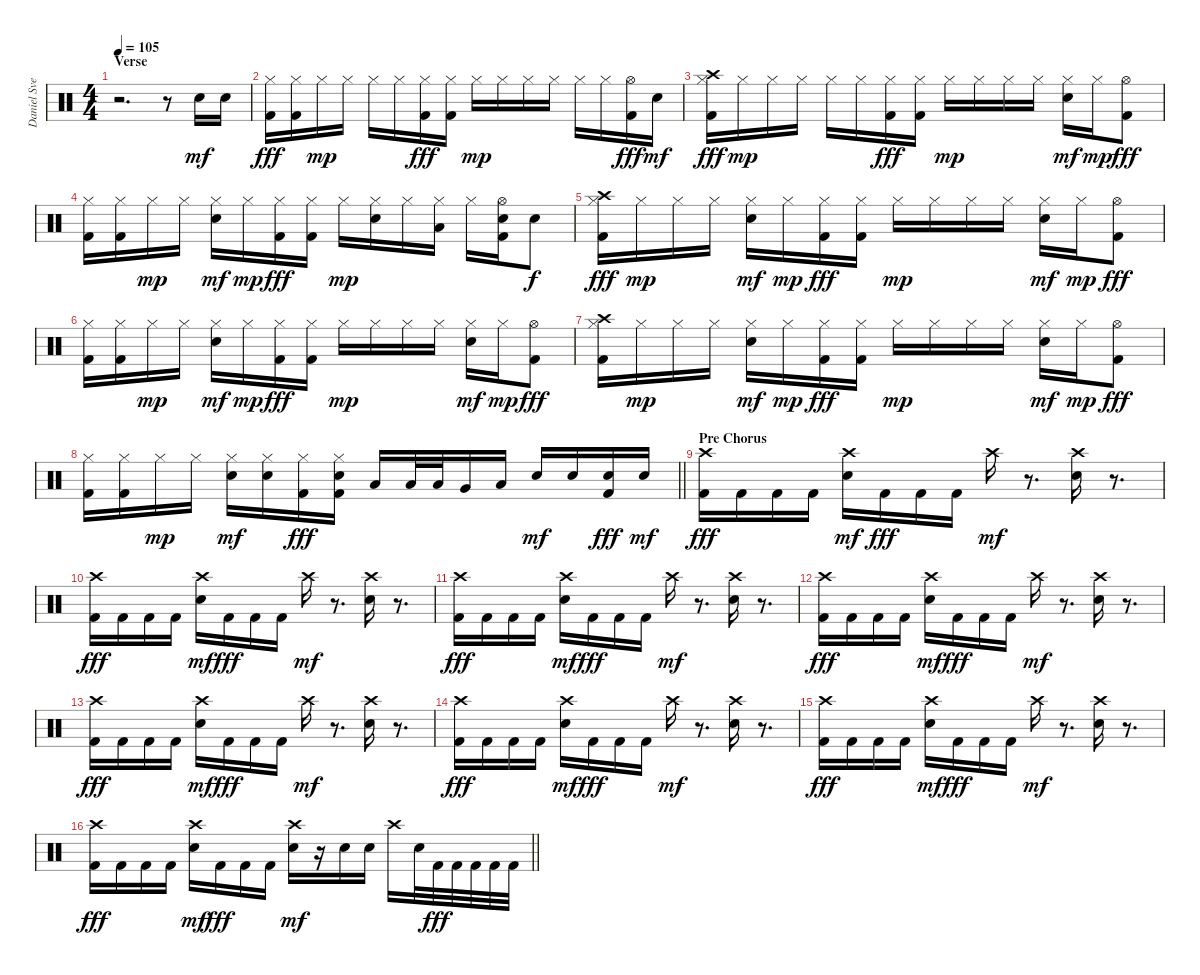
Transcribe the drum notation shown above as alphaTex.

\track ("Daniel Svensson" "Daniel Sve") {instrument percussion}
\staff {score}
\articulation defaults
\ts (4 4)
\section ("" "Verse")
\tempo 105
\clef neutral
\ks c
r.2{d dy mf} r.8 "Electric Snare (hit)".16 "Electric Snare (hit)".16 |
("Hi-Hat (closed)" "Kick (hit) 2").16{dy fff} ("Hi-Hat (closed)" "Kick (hit) 2").16 "Hi-Hat (closed)".16{dy mp} "Hi-Hat (closed)".16 "Hi-Hat (closed)".16 "Hi-Hat (closed)".16 ("Hi-Hat (closed)" "Kick (hit) 2").16{dy fff} ("Hi-Hat (closed)" "Kick (hit) 2").16 "Hi-Hat (closed)".16{dy mp} "Hi-Hat (closed)".16 "Hi-Hat (closed)".16 "Hi-Hat (closed)".16 "Hi-Hat (closed)".16 "Hi-Hat (closed)".16 ("Hi-Hat (open)" "Kick (hit) 2").16{dy fff} "Electric Snare (hit)".16{dy mf} |
("Crash high (hit)" "Hi-Hat (closed)" "Kick (hit) 2").16{dy fff} "Hi-Hat (closed)".16{dy mp} "Hi-Hat (closed)".16 "Hi-Hat (closed)".16 "Hi-Hat (closed)".16 "Hi-Hat (closed)".16 ("Hi-Hat (closed)" "Kick (hit) 2").16{dy fff} ("Hi-Hat (closed)" "Kick (hit) 2").16 "Hi-Hat (closed)".16{dy mp} "Hi-Hat (closed)".16 "Hi-Hat (closed)".16 "Hi-Hat (closed)".16 ("Hi-Hat (closed)" "Electric Snare (hit)").16{dy mf} "Hi-Hat (closed)".16{dy mp} ("Hi-Hat (open)" "Kick (hit) 2").8{dy fff} |
("Hi-Hat (closed)" "Kick (hit) 2").16 ("Hi-Hat (closed)" "Kick (hit) 2").16 "Hi-Hat (closed)".16{dy mp} "Hi-Hat (closed)".16 ("Hi-Hat (closed)" "Electric Snare (hit)").16{dy mf} "Hi-Hat (closed)".16{dy mp} ("Hi-Hat (closed)" "Kick (hit) 2").16{dy fff} ("Hi-Hat (closed)" "Kick (hit) 2").16 "Hi-Hat (closed)".16{dy mp} ("Hi-Hat (closed)" "Electric Snare (hit)").16 "Hi-Hat (closed)".16 ("Low Tom (hit)" "Hi-Hat (closed)").16 "Hi-Hat (closed)".16 ("Hi-Hat (open)" "Electric Snare (hit)" "Kick (hit) 2").16 "Electric Snare (hit)".8{dy f} |
("Crash high (hit)" "Hi-Hat (closed)" "Kick (hit) 2").16{dy fff} "Hi-Hat (closed)".16{dy mp} "Hi-Hat (closed)".16 "Hi-Hat (closed)".16 ("Hi-Hat (closed)" "Electric Snare (hit)").16{dy mf} "Hi-Hat (closed)".16{dy mp} ("Hi-Hat (closed)" "Kick (hit) 2").16{dy fff} ("Hi-Hat (closed)" "Kick (hit) 2").16 "Hi-Hat (closed)".16{dy mp} "Hi-Hat (closed)".16 "Hi-Hat (closed)".16 "Hi-Hat (closed)".16 ("Hi-Hat (closed)" "Electric Snare (hit)").16{dy mf} "Hi-Hat (closed)".16{dy mp} ("Hi-Hat (open)" "Kick (hit) 2").8{dy fff} |
("Hi-Hat (closed)" "Kick (hit) 2").16 ("Hi-Hat (closed)" "Kick (hit) 2").16 "Hi-Hat (closed)".16{dy mp} "Hi-Hat (closed)".16 ("Hi-Hat (closed)" "Electric Snare (hit)").16{dy mf} "Hi-Hat (closed)".16{dy mp} ("Hi-Hat (closed)" "Kick (hit) 2").16{dy fff} ("Hi-Hat (closed)" "Kick (hit) 2").16 "Hi-Hat (closed)".16{dy mp} "Hi-Hat (closed)".16 "Hi-Hat (closed)".16 "Hi-Hat (closed)".16 ("Hi-Hat (closed)" "Electric Snare (hit)").16{dy mf} "Hi-Hat (closed)".16{dy mp} ("Hi-Hat (open)" "Kick (hit) 2").8{dy fff} |
("Crash high (hit)" "Hi-Hat (closed)" "Kick (hit) 2").16 "Hi-Hat (closed)".16{dy mp} "Hi-Hat (closed)".16 "Hi-Hat (closed)".16 ("Hi-Hat (closed)" "Electric Snare (hit)").16{dy mf} "Hi-Hat (closed)".16{dy mp} ("Hi-Hat (closed)" "Kick (hit) 2").16{dy fff} ("Hi-Hat (closed)" "Kick (hit) 2").16 "Hi-Hat (closed)".16{dy mp} "Hi-Hat (closed)".16 "Hi-Hat (closed)".16 "Hi-Hat (closed)".16 ("Hi-Hat (closed)" "Electric Snare (hit)").16{dy mf} "Hi-Hat (closed)".16{dy mp} ("Hi-Hat (open)" "Kick (hit) 2").8{dy fff} |
\barLineRight lightlight
("Hi-Hat (closed)" "Kick (hit) 2").16 ("Hi-Hat (closed)" "Kick (hit) 2").16 "Hi-Hat (closed)".16{dy mp} "Hi-Hat (closed)".16 ("Hi-Hat (closed)" "Electric Snare (hit)").16{dy mf} ("Hi-Hat (closed)" "Electric Snare (hit)").16 ("Hi-Hat (closed)" "Kick (hit) 2").16{dy fff} ("Hi-Hat (closed)" "Electric Snare (hit)" "Kick (hit) 2").16 "Low Tom (hit)".16 "Low Tom (hit)".32 "Low Tom (hit)".32 "Very Low Tom (hit)".16 "Low Floor Tom (hit)".16 "Electric Snare (hit)".16{dy mf} "Electric Snare (hit)".16 ("Electric Snare (hit)" "Kick (hit) 2").16{dy fff} "Electric Snare (hit)".16{dy mf} |
\section ("" "Pre Chorus")
("Crash high (hit)" "Kick (hit) 2").16{dy fff} "Kick (hit) 2".16 "Kick (hit) 2".16 "Kick (hit) 2".16 ("Crash high (hit)" "Electric Snare (hit)").16{dy mf} "Kick (hit) 2".16{dy fff} "Kick (hit) 2".16 "Kick (hit) 2".16 "Crash high (hit)".16{dy mf} r.8{d} ("Crash high (hit)" "Electric Snare (hit)").16 r.8{d} |
("Crash high (hit)" "Kick (hit) 2").16{dy fff} "Kick (hit) 2".16 "Kick (hit) 2".16 "Kick (hit) 2".16 ("Crash high (hit)" "Electric Snare (hit)").16{dy mf} "Kick (hit) 2".16{dy fff} "Kick (hit) 2".16 "Kick (hit) 2".16 "Crash high (hit)".16{dy mf} r.8{d} ("Crash high (hit)" "Electric Snare (hit)").16 r.8{d} |
("Crash high (hit)" "Kick (hit) 2").16{dy fff} "Kick (hit) 2".16 "Kick (hit) 2".16 "Kick (hit) 2".16 ("Crash high (hit)" "Electric Snare (hit)").16{dy mf} "Kick (hit) 2".16{dy fff} "Kick (hit) 2".16 "Kick (hit) 2".16 "Crash high (hit)".16{dy mf} r.8{d} ("Crash high (hit)" "Electric Snare (hit)").16 r.8{d} |
("Crash high (hit)" "Kick (hit) 2").16{dy fff} "Kick (hit) 2".16 "Kick (hit) 2".16 "Kick (hit) 2".16 ("Crash high (hit)" "Electric Snare (hit)").16{dy mf} "Kick (hit) 2".16{dy fff} "Kick (hit) 2".16 "Kick (hit) 2".16 "Crash high (hit)".16{dy mf} r.8{d} ("Crash high (hit)" "Electric Snare (hit)").16 r.8{d} |
("Crash high (hit)" "Kick (hit) 2").16{dy fff} "Kick (hit) 2".16 "Kick (hit) 2".16 "Kick (hit) 2".16 ("Crash high (hit)" "Electric Snare (hit)").16{dy mf} "Kick (hit) 2".16{dy fff} "Kick (hit) 2".16 "Kick (hit) 2".16 "Crash high (hit)".16{dy mf} r.8{d} ("Crash high (hit)" "Electric Snare (hit)").16 r.8{d} |
("Crash high (hit)" "Kick (hit) 2").16{dy fff} "Kick (hit) 2".16 "Kick (hit) 2".16 "Kick (hit) 2".16 ("Crash high (hit)" "Electric Snare (hit)").16{dy mf} "Kick (hit) 2".16{dy fff} "Kick (hit) 2".16 "Kick (hit) 2".16 "Crash high (hit)".16{dy mf} r.8{d} ("Crash high (hit)" "Electric Snare (hit)").16 r.8{d} |
("Crash high (hit)" "Kick (hit) 2").16{dy fff} "Kick (hit) 2".16 "Kick (hit) 2".16 "Kick (hit) 2".16 ("Crash high (hit)" "Electric Snare (hit)").16{dy mf} "Kick (hit) 2".16{dy fff} "Kick (hit) 2".16 "Kick (hit) 2".16 "Crash high (hit)".16{dy mf} r.8{d} ("Crash high (hit)" "Electric Snare (hit)").16 r.8{d} |
\barLineRight lightlight
("Crash high (hit)" "Kick (hit) 2").16{dy fff} "Kick (hit) 2".16 "Kick (hit) 2".16 "Kick (hit) 2".16 ("Crash high (hit)" "Electric Snare (hit)").16{dy mf} "Kick (hit) 2".16{dy fff} "Kick (hit) 2".16 "Kick (hit) 2".16 ("Crash high (hit)" "Electric Snare (hit)").16{dy mf} r.16 "Electric Snare (hit)".16 "Electric Snare (hit)".16 "Crash high (hit)".16 "Electric Snare (hit)".32 "Kick (hit) 2".32{dy fff} "Kick (hit) 2".32 "Kick (hit) 2".32 "Kick (hit) 2".32 "Kick (hit) 2".32
